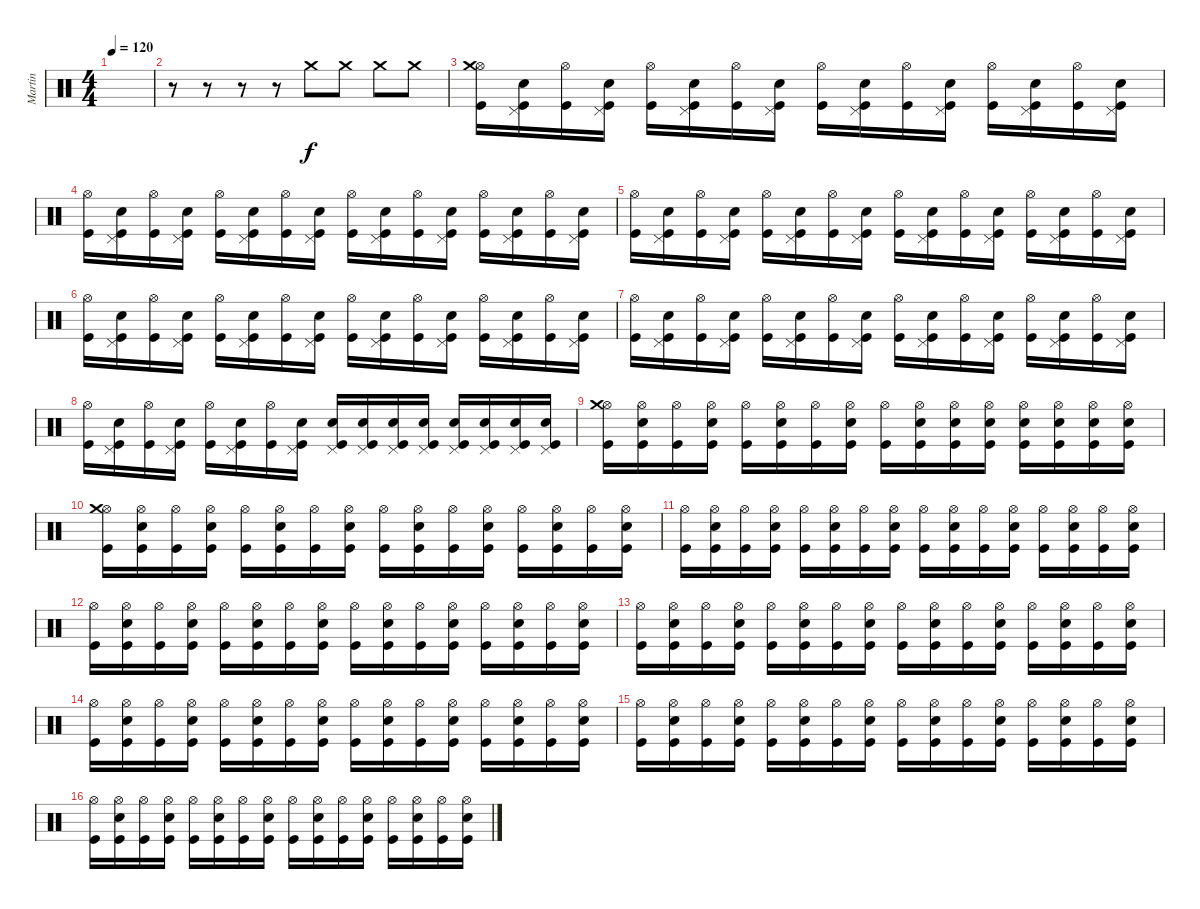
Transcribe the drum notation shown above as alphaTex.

\track ("Martin" "Martin") {instrument percussion}
\staff {score}
\articulation defaults
\ts (4 4)
\tempo 120
\clef neutral
\ks c
|
r.8 r.8 r.8 r.8 "Crash medium (hit)".8 "Crash medium (hit)".8 "Crash medium (hit)".8 "Crash medium (hit)".8 |
("Hi-Hat (open)" "Crash medium (hit)" "Kick (hit)").16 ("Pedal Hi-Hat (hit)" "Snare (hit) 2" "Kick (hit)").16 ("Hi-Hat (open)" "Kick (hit)").16 ("Pedal Hi-Hat (hit)" "Snare (hit) 2" "Kick (hit)").16 ("Hi-Hat (open)" "Kick (hit)").16 ("Pedal Hi-Hat (hit)" "Snare (hit) 2" "Kick (hit)").16 ("Hi-Hat (open)" "Kick (hit)").16 ("Pedal Hi-Hat (hit)" "Snare (hit) 2" "Kick (hit)").16 ("Hi-Hat (open)" "Kick (hit)").16 ("Pedal Hi-Hat (hit)" "Snare (hit) 2" "Kick (hit)").16 ("Hi-Hat (open)" "Kick (hit)").16 ("Pedal Hi-Hat (hit)" "Snare (hit) 2" "Kick (hit)").16 ("Hi-Hat (open)" "Kick (hit)").16 ("Pedal Hi-Hat (hit)" "Snare (hit) 2" "Kick (hit)").16 ("Hi-Hat (open)" "Kick (hit)").16 ("Pedal Hi-Hat (hit)" "Snare (hit) 2" "Kick (hit)").16 |
("Hi-Hat (open)" "Kick (hit)").16 ("Pedal Hi-Hat (hit)" "Snare (hit) 2" "Kick (hit)").16 ("Hi-Hat (open)" "Kick (hit)").16 ("Pedal Hi-Hat (hit)" "Snare (hit) 2" "Kick (hit)").16 ("Hi-Hat (open)" "Kick (hit)").16 ("Pedal Hi-Hat (hit)" "Snare (hit) 2" "Kick (hit)").16 ("Hi-Hat (open)" "Kick (hit)").16 ("Pedal Hi-Hat (hit)" "Snare (hit) 2" "Kick (hit)").16 ("Hi-Hat (open)" "Kick (hit)").16 ("Pedal Hi-Hat (hit)" "Snare (hit) 2" "Kick (hit)").16 ("Hi-Hat (open)" "Kick (hit)").16 ("Pedal Hi-Hat (hit)" "Snare (hit) 2" "Kick (hit)").16 ("Hi-Hat (open)" "Kick (hit)").16 ("Pedal Hi-Hat (hit)" "Snare (hit) 2" "Kick (hit)").16 ("Hi-Hat (open)" "Kick (hit)").16 ("Pedal Hi-Hat (hit)" "Snare (hit) 2" "Kick (hit)").16 |
("Hi-Hat (open)" "Kick (hit)").16 ("Pedal Hi-Hat (hit)" "Snare (hit) 2" "Kick (hit)").16 ("Hi-Hat (open)" "Kick (hit)").16 ("Pedal Hi-Hat (hit)" "Snare (hit) 2" "Kick (hit)").16 ("Hi-Hat (open)" "Kick (hit)").16 ("Pedal Hi-Hat (hit)" "Snare (hit) 2" "Kick (hit)").16 ("Hi-Hat (open)" "Kick (hit)").16 ("Pedal Hi-Hat (hit)" "Snare (hit) 2" "Kick (hit)").16 ("Hi-Hat (open)" "Kick (hit)").16 ("Pedal Hi-Hat (hit)" "Snare (hit) 2" "Kick (hit)").16 ("Hi-Hat (open)" "Kick (hit)").16 ("Pedal Hi-Hat (hit)" "Snare (hit) 2" "Kick (hit)").16 ("Hi-Hat (open)" "Kick (hit)").16 ("Pedal Hi-Hat (hit)" "Snare (hit) 2" "Kick (hit)").16 ("Hi-Hat (open)" "Kick (hit)").16 ("Pedal Hi-Hat (hit)" "Snare (hit) 2" "Kick (hit)").16 |
("Hi-Hat (open)" "Kick (hit)").16 ("Pedal Hi-Hat (hit)" "Snare (hit) 2" "Kick (hit)").16 ("Hi-Hat (open)" "Kick (hit)").16 ("Pedal Hi-Hat (hit)" "Snare (hit) 2" "Kick (hit)").16 ("Hi-Hat (open)" "Kick (hit)").16 ("Pedal Hi-Hat (hit)" "Snare (hit) 2" "Kick (hit)").16 ("Hi-Hat (open)" "Kick (hit)").16 ("Pedal Hi-Hat (hit)" "Snare (hit) 2" "Kick (hit)").16 ("Hi-Hat (open)" "Kick (hit)").16 ("Pedal Hi-Hat (hit)" "Snare (hit) 2" "Kick (hit)").16 ("Hi-Hat (open)" "Kick (hit)").16 ("Pedal Hi-Hat (hit)" "Snare (hit) 2" "Kick (hit)").16 ("Hi-Hat (open)" "Kick (hit)").16 ("Pedal Hi-Hat (hit)" "Snare (hit) 2" "Kick (hit)").16 ("Hi-Hat (open)" "Kick (hit)").16 ("Pedal Hi-Hat (hit)" "Snare (hit) 2" "Kick (hit)").16 |
("Hi-Hat (open)" "Kick (hit)").16 ("Pedal Hi-Hat (hit)" "Snare (hit) 2" "Kick (hit)").16 ("Hi-Hat (open)" "Kick (hit)").16 ("Pedal Hi-Hat (hit)" "Snare (hit) 2" "Kick (hit)").16 ("Hi-Hat (open)" "Kick (hit)").16 ("Pedal Hi-Hat (hit)" "Snare (hit) 2" "Kick (hit)").16 ("Hi-Hat (open)" "Kick (hit)").16 ("Pedal Hi-Hat (hit)" "Snare (hit) 2" "Kick (hit)").16 ("Hi-Hat (open)" "Kick (hit)").16 ("Pedal Hi-Hat (hit)" "Snare (hit) 2" "Kick (hit)").16 ("Hi-Hat (open)" "Kick (hit)").16 ("Pedal Hi-Hat (hit)" "Snare (hit) 2" "Kick (hit)").16 ("Hi-Hat (open)" "Kick (hit)").16 ("Pedal Hi-Hat (hit)" "Snare (hit) 2" "Kick (hit)").16 ("Hi-Hat (open)" "Kick (hit)").16 ("Pedal Hi-Hat (hit)" "Snare (hit) 2" "Kick (hit)").16 |
("Hi-Hat (open)" "Kick (hit)").16 ("Pedal Hi-Hat (hit)" "Snare (hit) 2" "Kick (hit)").16 ("Hi-Hat (open)" "Kick (hit)").16 ("Pedal Hi-Hat (hit)" "Snare (hit) 2" "Kick (hit)").16 ("Hi-Hat (open)" "Kick (hit)").16 ("Pedal Hi-Hat (hit)" "Snare (hit) 2" "Kick (hit)").16 ("Hi-Hat (open)" "Kick (hit)").16 ("Pedal Hi-Hat (hit)" "Snare (hit) 2" "Kick (hit)").16 ("Pedal Hi-Hat (hit)" "Snare (hit) 2" "Kick (hit)").16 ("Pedal Hi-Hat (hit)" "Snare (hit) 2" "Kick (hit)").16 ("Pedal Hi-Hat (hit)" "Snare (hit) 2" "Kick (hit)").16 ("Pedal Hi-Hat (hit)" "Snare (hit) 2" "Kick (hit)").16 ("Pedal Hi-Hat (hit)" "Snare (hit) 2" "Kick (hit)").16 ("Pedal Hi-Hat (hit)" "Snare (hit) 2" "Kick (hit)").16 ("Pedal Hi-Hat (hit)" "Snare (hit) 2" "Kick (hit)").16 ("Pedal Hi-Hat (hit)" "Snare (hit) 2" "Kick (hit)").16 |
("Hi-Hat (open)" "Crash medium (hit)" "Kick (hit)").16 ("Hi-Hat (open)" "Snare (hit) 2" "Kick (hit)").16 ("Hi-Hat (open)" "Kick (hit)").16 ("Hi-Hat (open)" "Snare (hit) 2" "Kick (hit)").16 ("Hi-Hat (open)" "Kick (hit)").16 ("Hi-Hat (open)" "Snare (hit) 2" "Kick (hit)").16 ("Hi-Hat (open)" "Kick (hit)").16 ("Hi-Hat (open)" "Snare (hit) 2" "Kick (hit)").16 ("Hi-Hat (open)" "Kick (hit)").16 ("Hi-Hat (open)" "Snare (hit) 2" "Kick (hit)").16 ("Hi-Hat (open)" "Snare (hit) 2" "Kick (hit)").16 ("Hi-Hat (open)" "Snare (hit) 2" "Kick (hit)").16 ("Hi-Hat (open)" "Snare (hit) 2" "Kick (hit)").16 ("Hi-Hat (open)" "Snare (hit) 2" "Kick (hit)").16 ("Hi-Hat (open)" "Snare (hit) 2" "Kick (hit)").16 ("Hi-Hat (open)" "Snare (hit) 2" "Kick (hit)").16 |
("Hi-Hat (open)" "Crash medium (hit)" "Kick (hit)").16 ("Hi-Hat (open)" "Snare (hit) 2" "Kick (hit)").16 ("Hi-Hat (open)" "Kick (hit)").16 ("Hi-Hat (open)" "Snare (hit) 2" "Kick (hit)").16 ("Hi-Hat (open)" "Kick (hit)").16 ("Hi-Hat (open)" "Snare (hit) 2" "Kick (hit)").16 ("Hi-Hat (open)" "Kick (hit)").16 ("Hi-Hat (open)" "Snare (hit) 2" "Kick (hit)").16 ("Hi-Hat (open)" "Kick (hit)").16 ("Hi-Hat (open)" "Snare (hit) 2" "Kick (hit)").16 ("Hi-Hat (open)" "Kick (hit)").16 ("Hi-Hat (open)" "Snare (hit) 2" "Kick (hit)").16 ("Hi-Hat (open)" "Kick (hit)").16 ("Hi-Hat (open)" "Snare (hit) 2" "Kick (hit)").16 ("Hi-Hat (open)" "Kick (hit)").16 ("Hi-Hat (open)" "Snare (hit) 2" "Kick (hit)").16 |
("Hi-Hat (open)" "Kick (hit)").16 ("Hi-Hat (open)" "Snare (hit) 2" "Kick (hit)").16 ("Hi-Hat (open)" "Kick (hit)").16 ("Hi-Hat (open)" "Snare (hit) 2" "Kick (hit)").16 ("Hi-Hat (open)" "Kick (hit)").16 ("Hi-Hat (open)" "Snare (hit) 2" "Kick (hit)").16 ("Hi-Hat (open)" "Kick (hit)").16 ("Hi-Hat (open)" "Snare (hit) 2" "Kick (hit)").16 ("Hi-Hat (open)" "Kick (hit)").16 ("Hi-Hat (open)" "Snare (hit) 2" "Kick (hit)").16 ("Hi-Hat (open)" "Kick (hit)").16 ("Hi-Hat (open)" "Snare (hit) 2" "Kick (hit)").16 ("Hi-Hat (open)" "Kick (hit)").16 ("Hi-Hat (open)" "Snare (hit) 2" "Kick (hit)").16 ("Hi-Hat (open)" "Kick (hit)").16 ("Hi-Hat (open)" "Snare (hit) 2" "Kick (hit)").16 |
("Hi-Hat (open)" "Kick (hit)").16 ("Hi-Hat (open)" "Snare (hit) 2" "Kick (hit)").16 ("Hi-Hat (open)" "Kick (hit)").16 ("Hi-Hat (open)" "Snare (hit) 2" "Kick (hit)").16 ("Hi-Hat (open)" "Kick (hit)").16 ("Hi-Hat (open)" "Snare (hit) 2" "Kick (hit)").16 ("Hi-Hat (open)" "Kick (hit)").16 ("Hi-Hat (open)" "Snare (hit) 2" "Kick (hit)").16 ("Hi-Hat (open)" "Kick (hit)").16 ("Hi-Hat (open)" "Snare (hit) 2" "Kick (hit)").16 ("Hi-Hat (open)" "Kick (hit)").16 ("Hi-Hat (open)" "Snare (hit) 2" "Kick (hit)").16 ("Hi-Hat (open)" "Kick (hit)").16 ("Hi-Hat (open)" "Snare (hit) 2" "Kick (hit)").16 ("Hi-Hat (open)" "Kick (hit)").16 ("Hi-Hat (open)" "Snare (hit) 2" "Kick (hit)").16 |
("Hi-Hat (open)" "Kick (hit)").16 ("Hi-Hat (open)" "Snare (hit) 2" "Kick (hit)").16 ("Hi-Hat (open)" "Kick (hit)").16 ("Hi-Hat (open)" "Snare (hit) 2" "Kick (hit)").16 ("Hi-Hat (open)" "Kick (hit)").16 ("Hi-Hat (open)" "Snare (hit) 2" "Kick (hit)").16 ("Hi-Hat (open)" "Kick (hit)").16 ("Hi-Hat (open)" "Snare (hit) 2" "Kick (hit)").16 ("Hi-Hat (open)" "Kick (hit)").16 ("Hi-Hat (open)" "Snare (hit) 2" "Kick (hit)").16 ("Hi-Hat (open)" "Kick (hit)").16 ("Hi-Hat (open)" "Snare (hit) 2" "Kick (hit)").16 ("Hi-Hat (open)" "Kick (hit)").16 ("Hi-Hat (open)" "Snare (hit) 2" "Kick (hit)").16 ("Hi-Hat (open)" "Kick (hit)").16 ("Hi-Hat (open)" "Snare (hit) 2" "Kick (hit)").16 |
("Hi-Hat (open)" "Kick (hit)").16 ("Hi-Hat (open)" "Snare (hit) 2" "Kick (hit)").16 ("Hi-Hat (open)" "Kick (hit)").16 ("Hi-Hat (open)" "Snare (hit) 2" "Kick (hit)").16 ("Hi-Hat (open)" "Kick (hit)").16 ("Hi-Hat (open)" "Snare (hit) 2" "Kick (hit)").16 ("Hi-Hat (open)" "Kick (hit)").16 ("Hi-Hat (open)" "Snare (hit) 2" "Kick (hit)").16 ("Hi-Hat (open)" "Kick (hit)").16 ("Hi-Hat (open)" "Snare (hit) 2" "Kick (hit)").16 ("Hi-Hat (open)" "Kick (hit)").16 ("Hi-Hat (open)" "Snare (hit) 2" "Kick (hit)").16 ("Hi-Hat (open)" "Kick (hit)").16 ("Hi-Hat (open)" "Snare (hit) 2" "Kick (hit)").16 ("Hi-Hat (open)" "Kick (hit)").16 ("Hi-Hat (open)" "Snare (hit) 2" "Kick (hit)").16 |
("Hi-Hat (open)" "Kick (hit)").16 ("Hi-Hat (open)" "Snare (hit) 2" "Kick (hit)").16 ("Hi-Hat (open)" "Kick (hit)").16 ("Hi-Hat (open)" "Snare (hit) 2" "Kick (hit)").16 ("Hi-Hat (open)" "Kick (hit)").16 ("Hi-Hat (open)" "Snare (hit) 2" "Kick (hit)").16 ("Hi-Hat (open)" "Kick (hit)").16 ("Hi-Hat (open)" "Snare (hit) 2" "Kick (hit)").16 ("Hi-Hat (open)" "Kick (hit)").16 ("Hi-Hat (open)" "Snare (hit) 2" "Kick (hit)").16 ("Hi-Hat (open)" "Kick (hit)").16 ("Hi-Hat (open)" "Snare (hit) 2" "Kick (hit)").16 ("Hi-Hat (open)" "Kick (hit)").16 ("Hi-Hat (open)" "Snare (hit) 2" "Kick (hit)").16 ("Hi-Hat (open)" "Kick (hit)").16 ("Hi-Hat (open)" "Snare (hit) 2" "Kick (hit)").16 |
("Hi-Hat (open)" "Kick (hit)").16 ("Hi-Hat (open)" "Snare (hit) 2" "Kick (hit)").16 ("Hi-Hat (open)" "Kick (hit)").16 ("Hi-Hat (open)" "Snare (hit) 2" "Kick (hit)").16 ("Hi-Hat (open)" "Kick (hit)").16 ("Hi-Hat (open)" "Snare (hit) 2" "Kick (hit)").16 ("Hi-Hat (open)" "Kick (hit)").16 ("Hi-Hat (open)" "Snare (hit) 2" "Kick (hit)").16 ("Hi-Hat (open)" "Kick (hit)").16 ("Hi-Hat (open)" "Snare (hit) 2" "Kick (hit)").16 ("Hi-Hat (open)" "Kick (hit)").16 ("Hi-Hat (open)" "Snare (hit) 2" "Kick (hit)").16 ("Hi-Hat (open)" "Kick (hit)").16 ("Hi-Hat (open)" "Snare (hit) 2" "Kick (hit)").16 ("Hi-Hat (open)" "Kick (hit)").16 ("Hi-Hat (open)" "Snare (hit) 2" "Kick (hit)").16
